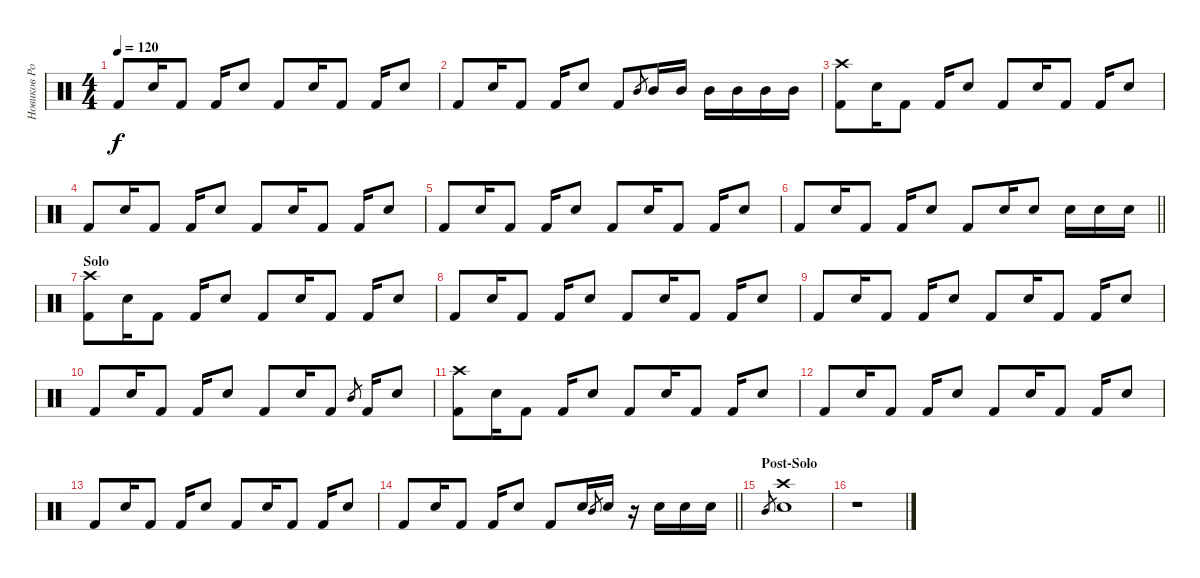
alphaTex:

\track ("Новиков Роман ( Ударные )" "Новиков Ро") {instrument percussion}
\staff {score}
\articulation defaults
\ts (4 4)
\tempo 120
\clef neutral
\ks c "Kick (hit) 2".8{dy f} "Electric Snare (hit)".16 "Kick (hit) 2".8 "Kick (hit) 2".16 "Electric Snare (hit)".8 "Kick (hit) 2".8 "Electric Snare (hit)".16 "Kick (hit) 2".8 "Kick (hit) 2".16 "Electric Snare (hit)".8
|
"Kick (hit) 2".8 "Electric Snare (hit)".16 "Kick (hit) 2".8 "Kick (hit) 2".16 "Electric Snare (hit)".8 "Kick (hit) 2".8 "Mid Tom (hit)"{h}.8{gr} "Mid Tom (hit)".16 "Mid Tom (hit)".16 "Mid Tom (hit)".16 "Mid Tom (hit)".16 "Mid Tom (hit)".16 "Mid Tom (hit)".16 |
("Crash high (hit)" "Kick (hit) 2").8 "Electric Snare (hit)".16 "Kick (hit) 2".8 "Kick (hit) 2".16 "Electric Snare (hit)".8 "Kick (hit) 2".8 "Electric Snare (hit)".16 "Kick (hit) 2".8 "Kick (hit) 2".16 "Electric Snare (hit)".8 |
"Kick (hit) 2".8 "Electric Snare (hit)".16 "Kick (hit) 2".8 "Kick (hit) 2".16 "Electric Snare (hit)".8 "Kick (hit) 2".8 "Electric Snare (hit)".16 "Kick (hit) 2".8 "Kick (hit) 2".16 "Electric Snare (hit)".8 |
"Kick (hit) 2".8 "Electric Snare (hit)".16 "Kick (hit) 2".8 "Kick (hit) 2".16 "Electric Snare (hit)".8 "Kick (hit) 2".8 "Electric Snare (hit)".16 "Kick (hit) 2".8 "Kick (hit) 2".16 "Electric Snare (hit)".8 |
\barLineRight lightlight "Kick (hit) 2".8 "Electric Snare (hit)".16 "Kick (hit) 2".8 "Kick (hit) 2".16 "Electric Snare (hit)".8 "Kick (hit) 2".8 "Electric Snare (hit)".16 "Snare (hit) 2".8 "Snare (hit) 2".16 "Snare (hit) 2".16 "Snare (hit) 2".16
|
\section ("" "Solo")
("Crash high (hit)" "Kick (hit) 2").8 "Electric Snare (hit)".16 "Kick (hit) 2".8 "Kick (hit) 2".16 "Electric Snare (hit)".8 "Kick (hit) 2".8 "Electric Snare (hit)".16 "Kick (hit) 2".8 "Kick (hit) 2".16 "Electric Snare (hit)".8 |
"Kick (hit) 2".8 "Electric Snare (hit)".16 "Kick (hit) 2".8 "Kick (hit) 2".16 "Electric Snare (hit)".8 "Kick (hit) 2".8 "Electric Snare (hit)".16 "Kick (hit) 2".8 "Kick (hit) 2".16 "Electric Snare (hit)".8 |
"Kick (hit) 2".8 "Electric Snare (hit)".16 "Kick (hit) 2".8 "Kick (hit) 2".16 "Electric Snare (hit)".8 "Kick (hit) 2".8 "Electric Snare (hit)".16 "Kick (hit) 2".8 "Kick (hit) 2".16 "Electric Snare (hit)".8 |
"Kick (hit) 2".8 "Electric Snare (hit)".16 "Kick (hit) 2".8 "Kick (hit) 2".16 "Electric Snare (hit)".8 "Kick (hit) 2".8 "Electric Snare (hit)".16 "Kick (hit) 2".8 "Mid Tom (hit)"{h}.8{gr} "Kick (hit) 2".16 "Snare (hit) 2".8 |
("Crash high (hit)" "Kick (hit) 2").8 "Electric Snare (hit)".16 "Kick (hit) 2".8 "Kick (hit) 2".16 "Electric Snare (hit)".8 "Kick (hit) 2".8 "Electric Snare (hit)".16 "Kick (hit) 2".8 "Kick (hit) 2".16 "Electric Snare (hit)".8 |
"Kick (hit) 2".8 "Electric Snare (hit)".16 "Kick (hit) 2".8 "Kick (hit) 2".16 "Electric Snare (hit)".8 "Kick (hit) 2".8 "Electric Snare (hit)".16 "Kick (hit) 2".8 "Kick (hit) 2".16 "Electric Snare (hit)".8 |
"Kick (hit) 2".8 "Electric Snare (hit)".16 "Kick (hit) 2".8 "Kick (hit) 2".16 "Electric Snare (hit)".8 "Kick (hit) 2".8 "Electric Snare (hit)".16 "Kick (hit) 2".8 "Kick (hit) 2".16 "Electric Snare (hit)".8 |
\barLineRight lightlight "Kick (hit) 2".8 "Electric Snare (hit)".16 "Kick (hit) 2".8 "Kick (hit) 2".16 "Electric Snare (hit)".8 "Kick (hit) 2".8 "Electric Snare (hit)".16 "Mid Tom (hit)"{h}.8{gr} "Snare (hit) 2".16
r.16 "Snare (hit) 2".16 "Snare (hit) 2".16 "Snare (hit) 2".16 |
\section ("" "Post-Solo ")
"Mid Tom (hit)"{h}.8{gr} ("Snare (hit) 2" "Crash high (hit)").1 |
r.1
